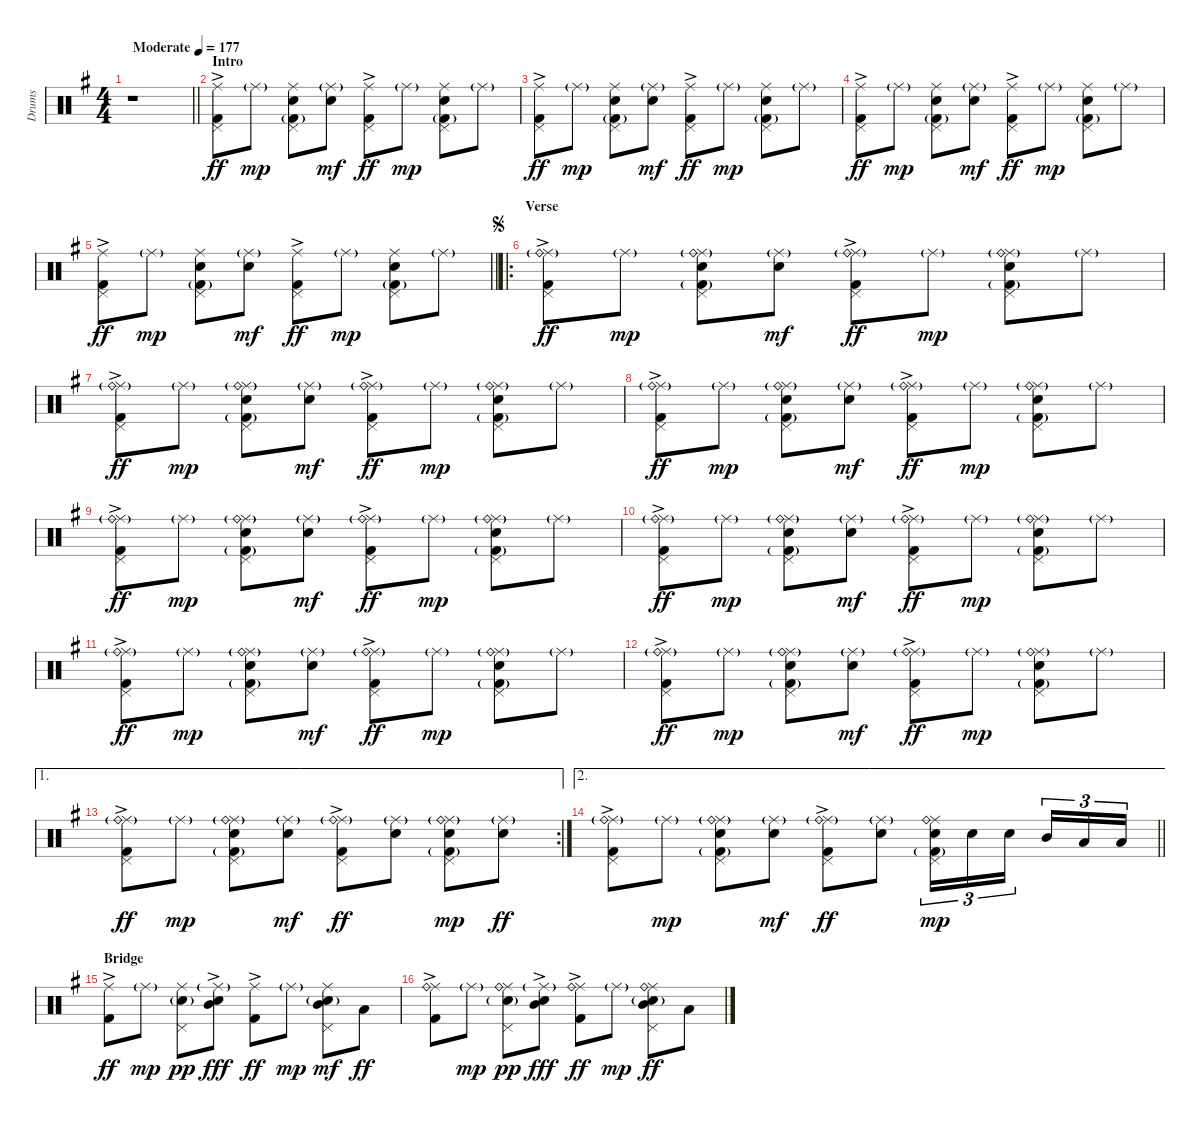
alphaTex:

\track ("Drums" "Drums") {instrument percussion}
\staff {score}
\articulation defaults
\ts (4 4)
\tempo (177 "Moderate")
\clef neutral
\barLineRight lightlight
\ks g
r.1{dy ff} |
\section ("" "Intro")
("Ride (middle)" "Pedal Hi-Hat (hit)" "Kick (hit) 2"{ac}).8 "Ride (middle)"{g}.8{dy mp} ("Ride (middle)" "Electric Snare (hit)" "Pedal Hi-Hat (hit)" "Kick (hit) 2"{g}).8 ("Ride (middle)"{g} "Electric Snare (hit)").8{dy mf} ("Ride (middle)" "Pedal Hi-Hat (hit)" "Kick (hit) 2"{ac}).8{dy ff} "Ride (middle)"{g}.8{dy mp} ("Ride (middle)" "Electric Snare (hit)" "Pedal Hi-Hat (hit)" "Kick (hit) 2"{g}).8 "Ride (middle)"{g}.8 |
("Ride (middle)" "Pedal Hi-Hat (hit)" "Kick (hit) 2"{ac}).8{dy ff} "Ride (middle)"{g}.8{dy mp} ("Ride (middle)" "Electric Snare (hit)" "Pedal Hi-Hat (hit)" "Kick (hit) 2"{g}).8 ("Ride (middle)"{g} "Electric Snare (hit)").8{dy mf} ("Ride (middle)" "Pedal Hi-Hat (hit)" "Kick (hit) 2"{ac}).8{dy ff} "Ride (middle)"{g}.8{dy mp} ("Ride (middle)" "Electric Snare (hit)" "Pedal Hi-Hat (hit)" "Kick (hit) 2"{g}).8 "Ride (middle)"{g}.8 |
("Ride (middle)" "Pedal Hi-Hat (hit)" "Kick (hit) 2"{ac}).8{dy ff} "Ride (middle)"{g}.8{dy mp} ("Ride (middle)" "Electric Snare (hit)" "Pedal Hi-Hat (hit)" "Kick (hit) 2"{g}).8 ("Ride (middle)"{g} "Electric Snare (hit)").8{dy mf} ("Ride (middle)" "Pedal Hi-Hat (hit)" "Kick (hit) 2"{ac}).8{dy ff} "Ride (middle)"{g}.8{dy mp} ("Ride (middle)" "Electric Snare (hit)" "Pedal Hi-Hat (hit)" "Kick (hit) 2"{g}).8 "Ride (middle)"{g}.8 |
\barLineRight lightlight
("Ride (middle)" "Pedal Hi-Hat (hit)" "Kick (hit) 2"{ac}).8{dy ff} "Ride (middle)"{g}.8{dy mp} ("Ride (middle)" "Electric Snare (hit)" "Pedal Hi-Hat (hit)" "Kick (hit) 2"{g}).8 ("Ride (middle)"{g} "Electric Snare (hit)").8{dy mf} ("Ride (middle)" "Pedal Hi-Hat (hit)" "Kick (hit) 2"{ac}).8{dy ff} "Ride (middle)"{g}.8{dy mp} ("Ride (middle)" "Electric Snare (hit)" "Pedal Hi-Hat (hit)" "Kick (hit) 2"{g}).8 "Ride (middle)"{g}.8 |
\ro
\section ("" "Verse")
\jump segno
("Ride (middle)" "Ride (bell)"{g} "Pedal Hi-Hat (hit)" "Kick (hit) 2"{ac}).8{dy ff} "Ride (middle)"{g}.8{dy mp} ("Ride (middle)" "Ride (bell)"{g} "Electric Snare (hit)" "Pedal Hi-Hat (hit)" "Kick (hit) 2"{g}).8 ("Ride (middle)"{g} "Electric Snare (hit)").8{dy mf} ("Ride (middle)" "Ride (bell)"{g} "Pedal Hi-Hat (hit)" "Kick (hit) 2"{ac}).8{dy ff} "Ride (middle)"{g}.8{dy mp} ("Ride (middle)" "Ride (bell)"{g} "Electric Snare (hit)" "Pedal Hi-Hat (hit)" "Kick (hit) 2"{g}).8 "Ride (middle)"{g}.8 |
("Ride (middle)" "Ride (bell)"{g} "Pedal Hi-Hat (hit)" "Kick (hit) 2"{ac}).8{dy ff} "Ride (middle)"{g}.8{dy mp} ("Ride (middle)" "Ride (bell)"{g} "Electric Snare (hit)" "Pedal Hi-Hat (hit)" "Kick (hit) 2"{g}).8 ("Ride (middle)"{g} "Electric Snare (hit)").8{dy mf} ("Ride (middle)" "Ride (bell)"{g} "Pedal Hi-Hat (hit)" "Kick (hit) 2"{ac}).8{dy ff} "Ride (middle)"{g}.8{dy mp} ("Ride (middle)" "Ride (bell)"{g} "Electric Snare (hit)" "Pedal Hi-Hat (hit)" "Kick (hit) 2"{g}).8 "Ride (middle)"{g}.8 |
("Ride (middle)" "Ride (bell)"{g} "Pedal Hi-Hat (hit)" "Kick (hit) 2"{ac}).8{dy ff} "Ride (middle)"{g}.8{dy mp} ("Ride (middle)" "Ride (bell)"{g} "Electric Snare (hit)" "Pedal Hi-Hat (hit)" "Kick (hit) 2"{g}).8 ("Ride (middle)"{g} "Electric Snare (hit)").8{dy mf} ("Ride (middle)" "Ride (bell)"{g} "Pedal Hi-Hat (hit)" "Kick (hit) 2"{ac}).8{dy ff} "Ride (middle)"{g}.8{dy mp} ("Ride (middle)" "Ride (bell)"{g} "Electric Snare (hit)" "Pedal Hi-Hat (hit)" "Kick (hit) 2"{g}).8 "Ride (middle)"{g}.8 |
("Ride (middle)" "Ride (bell)"{g} "Pedal Hi-Hat (hit)" "Kick (hit) 2"{ac}).8{dy ff} "Ride (middle)"{g}.8{dy mp} ("Ride (middle)" "Ride (bell)"{g} "Electric Snare (hit)" "Pedal Hi-Hat (hit)" "Kick (hit) 2"{g}).8 ("Ride (middle)"{g} "Electric Snare (hit)").8{dy mf} ("Ride (middle)" "Ride (bell)"{g} "Pedal Hi-Hat (hit)" "Kick (hit) 2"{ac}).8{dy ff} "Ride (middle)"{g}.8{dy mp} ("Ride (middle)" "Ride (bell)"{g} "Electric Snare (hit)" "Pedal Hi-Hat (hit)" "Kick (hit) 2"{g}).8 "Ride (middle)"{g}.8 |
("Ride (middle)" "Ride (bell)"{g} "Pedal Hi-Hat (hit)" "Kick (hit) 2"{ac}).8{dy ff} "Ride (middle)"{g}.8{dy mp} ("Ride (middle)" "Ride (bell)"{g} "Electric Snare (hit)" "Pedal Hi-Hat (hit)" "Kick (hit) 2"{g}).8 ("Ride (middle)"{g} "Electric Snare (hit)").8{dy mf} ("Ride (middle)" "Ride (bell)"{g} "Pedal Hi-Hat (hit)" "Kick (hit) 2"{ac}).8{dy ff} "Ride (middle)"{g}.8{dy mp} ("Ride (middle)" "Ride (bell)"{g} "Electric Snare (hit)" "Pedal Hi-Hat (hit)" "Kick (hit) 2"{g}).8 "Ride (middle)"{g}.8 |
("Ride (middle)" "Ride (bell)"{g} "Pedal Hi-Hat (hit)" "Kick (hit) 2"{ac}).8{dy ff} "Ride (middle)"{g}.8{dy mp} ("Ride (middle)" "Ride (bell)"{g} "Electric Snare (hit)" "Pedal Hi-Hat (hit)" "Kick (hit) 2"{g}).8 ("Ride (middle)"{g} "Electric Snare (hit)").8{dy mf} ("Ride (middle)" "Ride (bell)"{g} "Pedal Hi-Hat (hit)" "Kick (hit) 2"{ac}).8{dy ff} "Ride (middle)"{g}.8{dy mp} ("Ride (middle)" "Ride (bell)"{g} "Electric Snare (hit)" "Pedal Hi-Hat (hit)" "Kick (hit) 2"{g}).8 "Ride (middle)"{g}.8 |
("Ride (middle)" "Ride (bell)"{g} "Pedal Hi-Hat (hit)" "Kick (hit) 2"{ac}).8{dy ff} "Ride (middle)"{g}.8{dy mp} ("Ride (middle)" "Ride (bell)"{g} "Electric Snare (hit)" "Pedal Hi-Hat (hit)" "Kick (hit) 2"{g}).8 ("Ride (middle)"{g} "Electric Snare (hit)").8{dy mf} ("Ride (middle)" "Ride (bell)"{g} "Pedal Hi-Hat (hit)" "Kick (hit) 2"{ac}).8{dy ff} "Ride (middle)"{g}.8{dy mp} ("Ride (middle)" "Ride (bell)"{g} "Electric Snare (hit)" "Pedal Hi-Hat (hit)" "Kick (hit) 2"{g}).8 "Ride (middle)"{g}.8 |
\ae 1
\rc 2
("Ride (middle)" "Ride (bell)"{g} "Pedal Hi-Hat (hit)" "Kick (hit) 2"{ac}).8{dy ff} "Ride (middle)"{g}.8{dy mp} ("Ride (middle)" "Ride (bell)"{g} "Electric Snare (hit)" "Pedal Hi-Hat (hit)" "Kick (hit) 2"{g}).8 ("Ride (middle)"{g} "Electric Snare (hit)").8{dy mf} ("Ride (middle)" "Ride (bell)"{g} "Pedal Hi-Hat (hit)" "Kick (hit) 2"{ac}).8{dy ff} ("Ride (middle)"{g} "Electric Snare (hit)").8 ("Ride (middle)" "Ride (bell)"{g} "Electric Snare (hit)" "Pedal Hi-Hat (hit)" "Kick (hit) 2"{g}).8{dy mp} ("Ride (middle)"{g} "Electric Snare (hit)").8{dy ff} |
\ae 2
\barLineRight lightlight
("Ride (middle)" "Ride (bell)"{g} "Pedal Hi-Hat (hit)" "Kick (hit) 2"{ac}).8 "Ride (middle)"{g}.8{dy mp} ("Ride (middle)" "Ride (bell)"{g} "Electric Snare (hit)" "Pedal Hi-Hat (hit)" "Kick (hit) 2"{g}).8 ("Ride (middle)"{g} "Electric Snare (hit)").8{dy mf} ("Ride (middle)" "Ride (bell)"{g} "Pedal Hi-Hat (hit)" "Kick (hit) 2"{ac}).8{dy ff} ("Ride (middle)"{g} "Electric Snare (hit)").8 ("Ride (middle)" "Ride (bell)" "Electric Snare (hit)" "Pedal Hi-Hat (hit)" "Kick (hit) 2"{g}).16{tu (3 2) dy mp} "Electric Snare (hit)".16{tu (3 2)} "Electric Snare (hit)".16{tu (3 2) beam splitsecondary} "Mid Tom (hit)".16{tu (3 2)} "Low Tom (hit)".16{tu (3 2)} "Low Floor Tom (hit)".16{tu (3 2)} |
\section ("" "Bridge")
("Ride (middle)" "Kick (hit) 2"{ac}).8{dy ff} "Ride (middle)"{g}.8{dy mp} ("Ride (middle)" "Electric Snare (hit)"{g} "Pedal Hi-Hat (hit)").8{dy pp} ("Ride (middle)"{g} "Mid Tom (hit)" "Electric Snare (hit)"{ac}).8{dy fff} ("Ride (middle)" "Kick (hit) 2"{ac}).8{dy ff} "Ride (middle)"{g}.8{dy mp} ("Ride (middle)" "Mid Tom (hit)" "Electric Snare (hit)"{g} "Pedal Hi-Hat (hit)").8{dy mf} "Low Tom (hit)".8{dy ff} |
("Ride (middle)" "Ride (bell)" "Kick (hit) 2"{ac}).8 "Ride (middle)"{g}.8{dy mp} ("Ride (middle)" "Ride (bell)" "Electric Snare (hit)"{g} "Pedal Hi-Hat (hit)").8{dy pp} ("Ride (middle)"{g} "Mid Tom (hit)" "Electric Snare (hit)"{ac}).8{dy fff} ("Ride (middle)" "Ride (bell)" "Kick (hit) 2"{ac}).8{dy ff} "Ride (middle)"{g}.8{dy mp} ("Ride (middle)" "Mid Tom (hit)" "Electric Snare (hit)"{g} "Ride (bell)" "Pedal Hi-Hat (hit)").8{dy ff} "Low Tom (hit)".8
